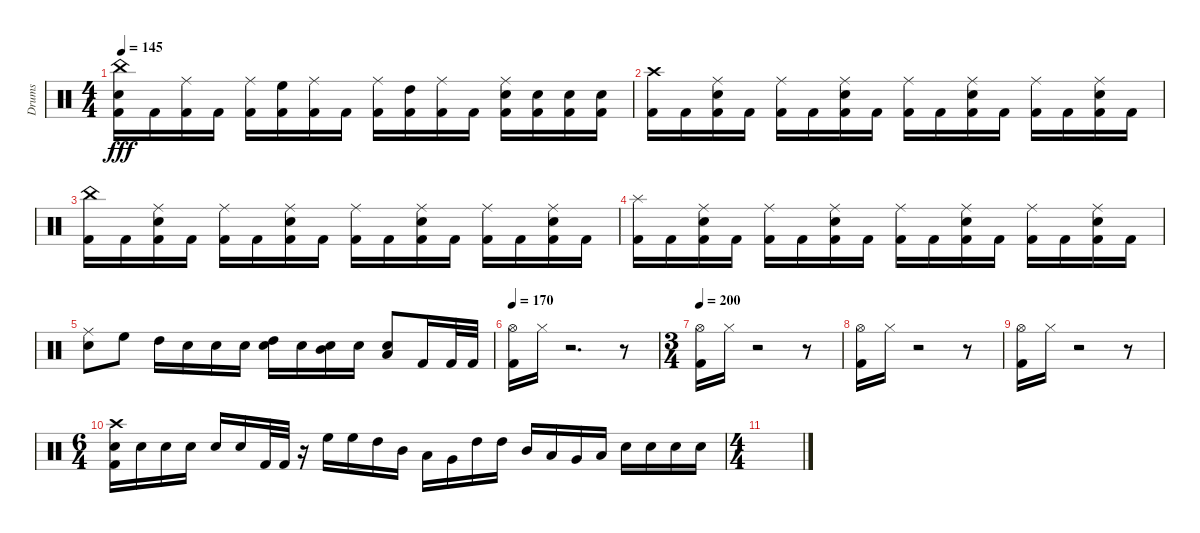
\track ("Drums" "Drums") {instrument percussion}
\staff {score}
\articulation defaults
\ts (4 4)
\tempo 145
\clef neutral
\ks c
("Electric Snare (hit)" "Kick (hit) 2" "China (hit)").16{dy fff} "Kick (hit) 2".16 ("Kick (hit) 2" "Ride (middle)").16 "Kick (hit) 2".16 ("Kick (hit) 2" "Ride (middle)").16 ("Kick (hit) 2" "High Floor Tom (hit)").16 ("Kick (hit) 2" "Ride (middle)").16 "Kick (hit) 2".16 ("Kick (hit) 2" "Ride (middle)").16 ("Kick (hit) 2" "High Tom (hit)").16 ("Kick (hit) 2" "Ride (middle)").16 "Kick (hit) 2".16 ("Kick (hit) 2" "Electric Snare (hit)" "Ride (middle)").16 ("Kick (hit) 2" "Electric Snare (hit)").16 ("Kick (hit) 2" "Electric Snare (hit)").16 ("Kick (hit) 2" "Electric Snare (hit)").16 |
("Kick (hit) 2" "Crash high (hit)").16 "Kick (hit) 2".16 ("Electric Snare (hit)" "Kick (hit) 2" "Ride (middle)").16 "Kick (hit) 2".16 ("Kick (hit) 2" "Ride (middle)").16 "Kick (hit) 2".16 ("Electric Snare (hit)" "Kick (hit) 2" "Ride (middle)").16 "Kick (hit) 2".16 ("Kick (hit) 2" "Ride (middle)").16 "Kick (hit) 2".16 ("Electric Snare (hit)" "Kick (hit) 2" "Ride (middle)").16 "Kick (hit) 2".16 ("Kick (hit) 2" "Ride (middle)").16 "Kick (hit) 2".16 ("Electric Snare (hit)" "Kick (hit) 2" "Ride (middle)").16 "Kick (hit) 2".16 |
("Kick (hit) 2" "China (hit)").16 "Kick (hit) 2".16 ("Electric Snare (hit)" "Kick (hit) 2" "Ride (middle)").16 "Kick (hit) 2".16 ("Kick (hit) 2" "Ride (middle)").16 "Kick (hit) 2".16 ("Electric Snare (hit)" "Kick (hit) 2" "Ride (middle)").16 "Kick (hit) 2".16 ("Kick (hit) 2" "Ride (middle)").16 "Kick (hit) 2".16 ("Electric Snare (hit)" "Kick (hit) 2" "Ride (middle)").16 "Kick (hit) 2".16 ("Kick (hit) 2" "Ride (middle)").16 "Kick (hit) 2".16 ("Electric Snare (hit)" "Kick (hit) 2" "Ride (middle)").16 "Kick (hit) 2".16 |
("Kick (hit) 2" "Splash (hit)").16 "Kick (hit) 2".16 ("Electric Snare (hit)" "Kick (hit) 2" "Ride (middle)").16 "Kick (hit) 2".16 ("Kick (hit) 2" "Ride (middle)").16 "Kick (hit) 2".16 ("Electric Snare (hit)" "Kick (hit) 2" "Ride (middle)").16 "Kick (hit) 2".16 ("Kick (hit) 2" "Ride (middle)").16 "Kick (hit) 2".16 ("Electric Snare (hit)" "Kick (hit) 2" "Ride (middle)").16 "Kick (hit) 2".16 ("Kick (hit) 2" "Ride (middle)").16 "Kick (hit) 2".16 ("Kick (hit) 2" "Ride (middle)" "Electric Snare (hit)").16 "Kick (hit) 2".16 |
("Ride (middle)" "Electric Snare (hit)").8 "High Floor Tom (hit)".8 "High Tom (hit)".16 "Electric Snare (hit)".16 "Electric Snare (hit)".16 "Electric Snare (hit)".16 ("High Tom (hit)" "Electric Snare (hit)").16 "Electric Snare (hit)".16 ("Mid Tom (hit)" "Electric Snare (hit)").16 "Electric Snare (hit)".16 ("Low Tom (hit)" "Electric Snare (hit)").8 "Kick (hit) 2".16 "Kick (hit) 2".32 "Kick (hit) 2".32 |
\tempo 170
("Hi-Hat (open)" "Kick (hit) 2").16 "Hi-Hat (closed)".16 r.2{d} r.8 |
\ts (3 4)
\tempo 200
("Hi-Hat (open)" "Kick (hit) 2").16 "Hi-Hat (closed)".16 r.2 r.8 |
("Hi-Hat (open)" "Kick (hit) 2").16 "Hi-Hat (closed)".16 r.2 r.8 |
("Hi-Hat (open)" "Kick (hit) 2").16 "Hi-Hat (closed)".16 r.2 r.8 |
\ts (6 4)
("Crash high (hit)" "Kick (hit) 2" "Electric Snare (hit)").16 "Electric Snare (hit)".16 "Electric Snare (hit)".16 "Electric Snare (hit)".16 "Electric Snare (hit)".16 "Electric Snare (hit)".16 "Kick (hit) 2".32 "Kick (hit) 2".32 r.16 "High Floor Tom (hit)".16 "High Floor Tom (hit)".16 "High Tom (hit)".16 "Mid Tom (hit)".16 "Low Tom (hit)".16 "Very Low Tom (hit)".16 "High Tom (hit)".16 "High Tom (hit)".16 "Mid Tom (hit)".16 "Low Tom (hit)".16 "Very Low Tom (hit)".16 "Low Floor Tom (hit)".16 "Electric Snare (hit)".16 "Electric Snare (hit)".16 "Electric Snare (hit)".16 "Electric Snare (hit)".16 |
\ts (4 4)
